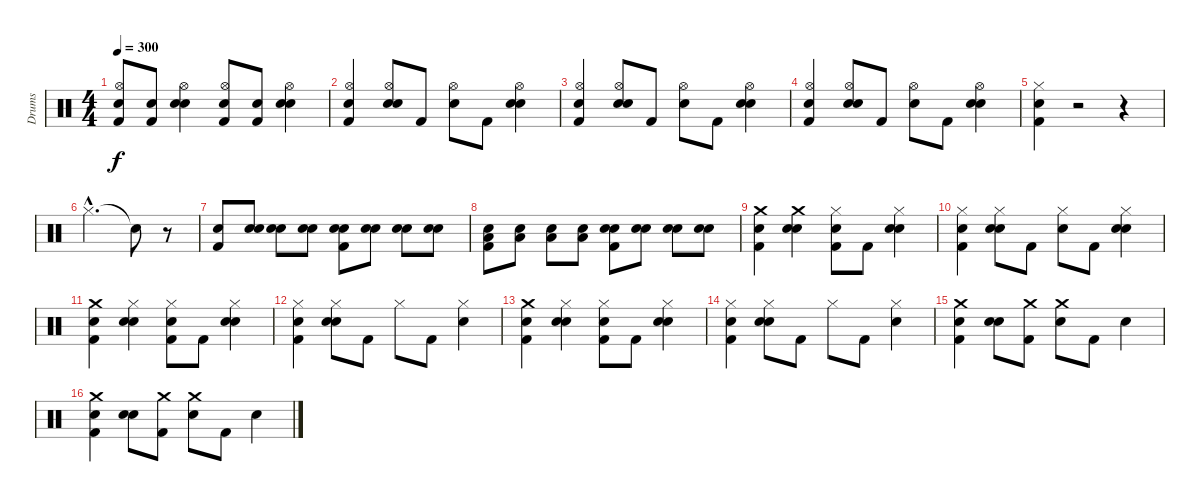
\track ("Drums" "Drums") {instrument percussion}
\staff {score}
\articulation defaults
\ts (4 4)
\tempo 300
\clef neutral
\ks c
("Snare (hit)" "Hi-Hat (open)" "Kick (hit) 2").8{dy f} ("Snare (hit)" "Kick (hit) 2").8 ("Snare (hit)" "Electric Snare (hit)" "Hi-Hat (open)").4 ("Snare (hit)" "Hi-Hat (open)" "Kick (hit) 2").8 ("Snare (hit)" "Kick (hit) 2").8 ("Snare (hit)" "Electric Snare (hit)" "Hi-Hat (open)").4 |
("Snare (hit)" "Hi-Hat (open)" "Kick (hit) 2").4 ("Snare (hit)" "Hi-Hat (open)" "Electric Snare (hit)").8 "Kick (hit) 2".8 ("Snare (hit)" "Hi-Hat (open)").8 "Kick (hit) 2".8 ("Snare (hit)" "Hi-Hat (open)" "Electric Snare (hit)").4 |
("Snare (hit)" "Hi-Hat (open)" "Kick (hit) 2").4 ("Snare (hit)" "Hi-Hat (open)" "Electric Snare (hit)").8 "Kick (hit) 2".8 ("Snare (hit)" "Hi-Hat (open)").8 "Kick (hit) 2".8 ("Snare (hit)" "Hi-Hat (open)" "Electric Snare (hit)").4 |
("Snare (hit)" "Hi-Hat (open)" "Kick (hit) 2").4 ("Snare (hit)" "Hi-Hat (open)" "Electric Snare (hit)").8 "Kick (hit) 2".8 ("Snare (hit)" "Hi-Hat (open)").8 "Kick (hit) 2".8 ("Snare (hit)" "Hi-Hat (open)" "Electric Snare (hit)").4 |
("Snare (hit)" "Hi-Hat (closed)" "Kick (hit) 2").4 r.2 r.4 |
"Hi-Hat (closed)"{hac}.2{d} "Snare (hit)"{t}.8 r.8 |
("Kick (hit) 2" "Electric Snare (hit)").8 ("Snare (hit)" "Electric Snare (hit)").8 ("Snare (hit)" "Electric Snare (hit)").8 ("Snare (hit)" "Electric Snare (hit)").8 ("Snare (hit)" "Kick (hit) 2" "Electric Snare (hit)").8 ("Snare (hit)" "Electric Snare (hit)").8 ("Snare (hit)" "Electric Snare (hit)").8 ("Snare (hit)" "Electric Snare (hit)").8 |
("Snare (hit)" "Kick (hit) 2" "Low Floor Tom (hit)").8 ("Snare (hit)" "Low Floor Tom (hit)").8 ("Snare (hit)" "Low Floor Tom (hit)").8 ("Snare (hit)" "Low Floor Tom (hit)").8 ("Snare (hit)" "Kick (hit) 2" "Electric Snare (hit)").8 ("Snare (hit)" "Electric Snare (hit)").8 ("Snare (hit)" "Electric Snare (hit)").8 ("Snare (hit)" "Electric Snare (hit)").8 |
("Snare (hit)" "Kick (hit) 2" "Crash medium (hit)").4 ("Snare (hit)" "Crash medium (hit)" "Electric Snare (hit)").4 ("Snare (hit)" "Kick (hit) 2" "Hi-Hat (closed)").8 "Kick (hit) 2".8 ("Snare (hit)" "Hi-Hat (closed)" "Electric Snare (hit)").4 |
("Snare (hit)" "Kick (hit) 2" "Hi-Hat (closed)").4 ("Snare (hit)" "Hi-Hat (closed)" "Electric Snare (hit)").8 "Kick (hit) 2".8 ("Snare (hit)" "Hi-Hat (closed)").8 "Kick (hit) 2".8 ("Snare (hit)" "Hi-Hat (closed)" "Electric Snare (hit)").4 |
("Snare (hit)" "Crash medium (hit)" "Kick (hit) 2").4 ("Snare (hit)" "Hi-Hat (closed)" "Electric Snare (hit)").4 ("Snare (hit)" "Hi-Hat (closed)" "Kick (hit) 2").8 "Kick (hit) 2".8 ("Snare (hit)" "Hi-Hat (closed)" "Electric Snare (hit)").4 |
("Snare (hit)" "Hi-Hat (closed)" "Kick (hit) 2").4 ("Snare (hit)" "Hi-Hat (closed)" "Electric Snare (hit)").8 "Kick (hit) 2".8 "Hi-Hat (closed)".8 "Kick (hit) 2".8 ("Hi-Hat (closed)" "Electric Snare (hit)").4 |
("Snare (hit)" "Crash medium (hit)" "Kick (hit) 2").4 ("Snare (hit)" "Hi-Hat (closed)" "Electric Snare (hit)").4 ("Snare (hit)" "Hi-Hat (closed)" "Kick (hit) 2").8 "Kick (hit) 2".8 ("Snare (hit)" "Hi-Hat (closed)" "Electric Snare (hit)").4 |
("Snare (hit)" "Hi-Hat (closed)" "Kick (hit) 2").4 ("Snare (hit)" "Hi-Hat (closed)" "Electric Snare (hit)").8 "Kick (hit) 2".8 "Hi-Hat (closed)".8 "Kick (hit) 2".8 ("Hi-Hat (closed)" "Electric Snare (hit)").4 |
("Snare (hit)" "Crash medium (hit)" "Kick (hit) 2").4 ("Snare (hit)" "Electric Snare (hit)").8 ("Crash medium (hit)" "Kick (hit) 2").8 ("Snare (hit)" "Crash medium (hit)").8 "Kick (hit) 2".8 "Electric Snare (hit)".4 |
("Snare (hit)" "Crash medium (hit)" "Kick (hit) 2").4 ("Snare (hit)" "Electric Snare (hit)").8 ("Crash medium (hit)" "Kick (hit) 2").8 ("Snare (hit)" "Crash medium (hit)").8 "Kick (hit) 2".8 "Electric Snare (hit)".4
